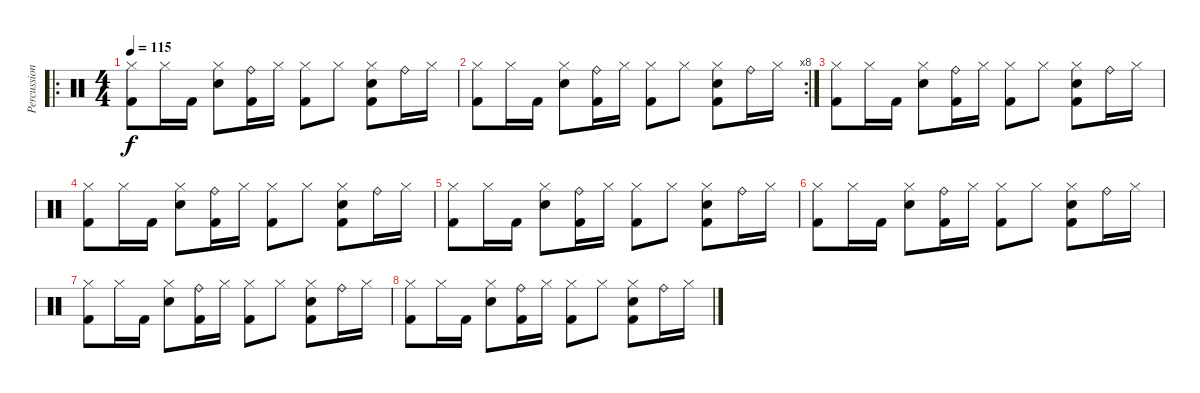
\track ("Percussions" "Percussion") {instrument percussion}
\staff {score}
\articulation defaults
\ro
\ts (4 4)
\tempo 115
\clef neutral
\ks c
("Kick (hit) 2" "Hi-Hat (closed)").8{dy f} "Hi-Hat (closed)".16 "Kick (hit) 2".16 ("Electric Snare (hit)" "Hi-Hat (closed)").8 ("Kick (hit) 2" "Ride (bell)").16 "Hi-Hat (closed)".16 ("Kick (hit) 2" "Hi-Hat (closed)").8 "Hi-Hat (closed)".8 ("Kick (hit) 2" "Electric Snare (hit)" "Hi-Hat (closed)").8 "Ride (bell)".16 "Hi-Hat (closed)".16 |
\rc 8
("Kick (hit) 2" "Hi-Hat (closed)").8 "Hi-Hat (closed)".16 "Kick (hit) 2".16 ("Electric Snare (hit)" "Hi-Hat (closed)").8 ("Kick (hit) 2" "Ride (bell)").16 "Hi-Hat (closed)".16 ("Kick (hit) 2" "Hi-Hat (closed)").8 "Hi-Hat (closed)".8 ("Kick (hit) 2" "Electric Snare (hit)" "Hi-Hat (closed)").8 "Ride (bell)".16 "Hi-Hat (closed)".16 |
("Kick (hit) 2" "Hi-Hat (closed)").8 "Hi-Hat (closed)".16 "Kick (hit) 2".16 ("Electric Snare (hit)" "Hi-Hat (closed)").8 ("Kick (hit) 2" "Ride (bell)").16 "Hi-Hat (closed)".16 ("Kick (hit) 2" "Hi-Hat (closed)").8 "Hi-Hat (closed)".8 ("Kick (hit) 2" "Electric Snare (hit)" "Hi-Hat (closed)").8 "Ride (bell)".16 "Hi-Hat (closed)".16 |
("Kick (hit) 2" "Hi-Hat (closed)").8 "Hi-Hat (closed)".16 "Kick (hit) 2".16 ("Electric Snare (hit)" "Hi-Hat (closed)").8 ("Kick (hit) 2" "Ride (bell)").16 "Hi-Hat (closed)".16 ("Kick (hit) 2" "Hi-Hat (closed)").8 "Hi-Hat (closed)".8 ("Kick (hit) 2" "Electric Snare (hit)" "Hi-Hat (closed)").8 "Ride (bell)".16 "Hi-Hat (closed)".16 |
("Kick (hit) 2" "Hi-Hat (closed)").8 "Hi-Hat (closed)".16 "Kick (hit) 2".16 ("Electric Snare (hit)" "Hi-Hat (closed)").8 ("Kick (hit) 2" "Ride (bell)").16 "Hi-Hat (closed)".16 ("Kick (hit) 2" "Hi-Hat (closed)").8 "Hi-Hat (closed)".8 ("Kick (hit) 2" "Electric Snare (hit)" "Hi-Hat (closed)").8 "Ride (bell)".16 "Hi-Hat (closed)".16 |
("Kick (hit) 2" "Hi-Hat (closed)").8 "Hi-Hat (closed)".16 "Kick (hit) 2".16 ("Electric Snare (hit)" "Hi-Hat (closed)").8 ("Kick (hit) 2" "Ride (bell)").16 "Hi-Hat (closed)".16 ("Kick (hit) 2" "Hi-Hat (closed)").8 "Hi-Hat (closed)".8 ("Kick (hit) 2" "Electric Snare (hit)" "Hi-Hat (closed)").8 "Ride (bell)".16 "Hi-Hat (closed)".16 |
("Kick (hit) 2" "Hi-Hat (closed)").8 "Hi-Hat (closed)".16 "Kick (hit) 2".16 ("Electric Snare (hit)" "Hi-Hat (closed)").8 ("Kick (hit) 2" "Ride (bell)").16 "Hi-Hat (closed)".16 ("Kick (hit) 2" "Hi-Hat (closed)").8 "Hi-Hat (closed)".8 ("Kick (hit) 2" "Electric Snare (hit)" "Hi-Hat (closed)").8 "Ride (bell)".16 "Hi-Hat (closed)".16 |
("Kick (hit) 2" "Hi-Hat (closed)").8 "Hi-Hat (closed)".16 "Kick (hit) 2".16 ("Electric Snare (hit)" "Hi-Hat (closed)").8 ("Kick (hit) 2" "Ride (bell)").16 "Hi-Hat (closed)".16 ("Kick (hit) 2" "Hi-Hat (closed)").8 "Hi-Hat (closed)".8 ("Kick (hit) 2" "Electric Snare (hit)" "Hi-Hat (closed)").8 "Ride (bell)".16 "Hi-Hat (closed)".16
